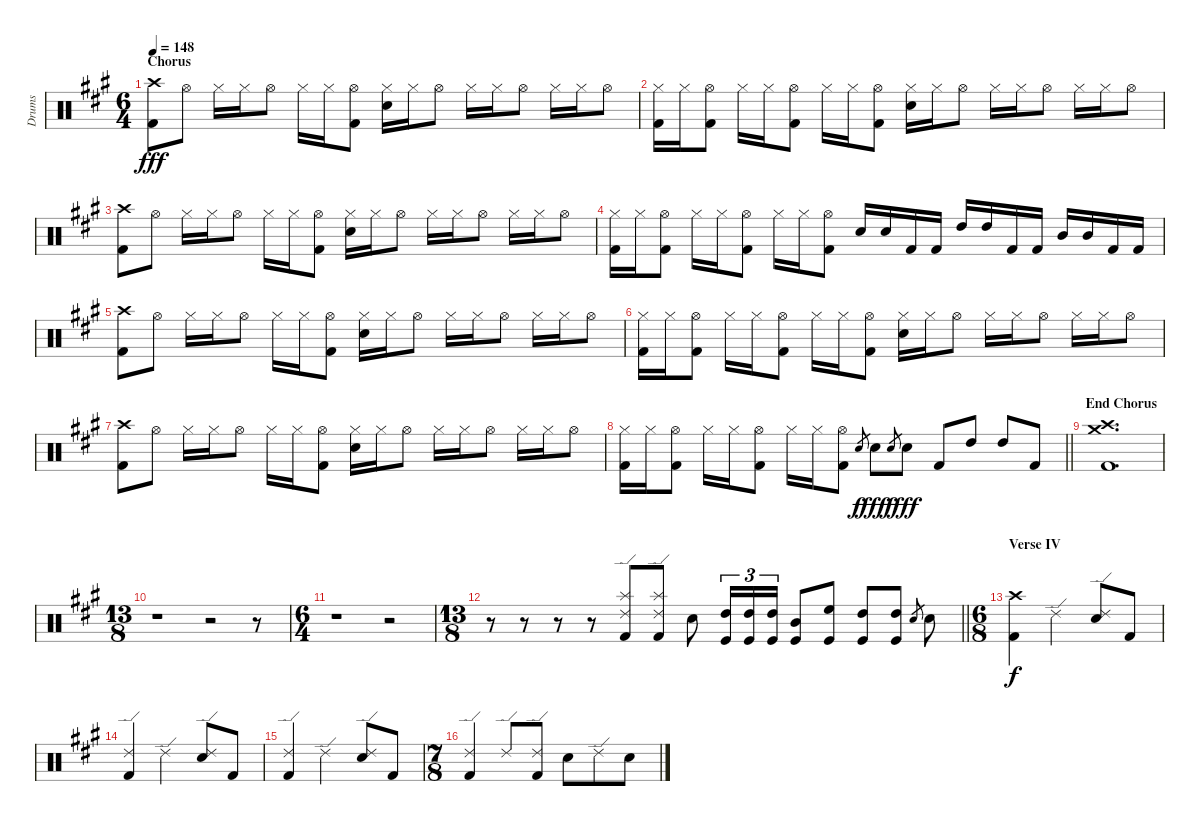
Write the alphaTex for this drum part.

\track ("Drums" "Drums") {instrument percussion}
\staff {score}
\articulation defaults
\ts (6 4)
\section ("" "Chorus")
\tempo 148
\clef neutral
\ks a
("Crash high (hit)" "Kick (hit) 2").8{dy fff} "Hi-Hat (open)".8 "Hi-Hat (closed)".16 "Hi-Hat (closed)".16 "Hi-Hat (open)".8 "Hi-Hat (closed)".16 "Hi-Hat (closed)".16 ("Hi-Hat (open)" "Kick (hit) 2").8 ("Hi-Hat (closed)" "Electric Snare (hit)").16 "Hi-Hat (closed)".16 "Hi-Hat (open)".8 "Hi-Hat (closed)".16 "Hi-Hat (closed)".16 "Hi-Hat (open)".8 "Hi-Hat (closed)".16 "Hi-Hat (closed)".16 "Hi-Hat (open)".8 |
("Hi-Hat (closed)" "Kick (hit) 2").16 "Hi-Hat (closed)".16 ("Hi-Hat (open)" "Kick (hit) 2").8 "Hi-Hat (closed)".16 "Hi-Hat (closed)".16 ("Hi-Hat (open)" "Kick (hit) 2").8 "Hi-Hat (closed)".16 "Hi-Hat (closed)".16 ("Hi-Hat (open)" "Kick (hit) 2").8 ("Hi-Hat (closed)" "Electric Snare (hit)").16 "Hi-Hat (closed)".16 "Hi-Hat (open)".8 "Hi-Hat (closed)".16 "Hi-Hat (closed)".16 "Hi-Hat (open)".8 "Hi-Hat (closed)".16 "Hi-Hat (closed)".16 "Hi-Hat (open)".8 |
("Crash high (hit)" "Kick (hit) 2").8 "Hi-Hat (open)".8 "Hi-Hat (closed)".16 "Hi-Hat (closed)".16 "Hi-Hat (open)".8 "Hi-Hat (closed)".16 "Hi-Hat (closed)".16 ("Hi-Hat (open)" "Kick (hit) 2").8 ("Hi-Hat (closed)" "Electric Snare (hit)").16 "Hi-Hat (closed)".16 "Hi-Hat (open)".8 "Hi-Hat (closed)".16 "Hi-Hat (closed)".16 "Hi-Hat (open)".8 "Hi-Hat (closed)".16 "Hi-Hat (closed)".16 "Hi-Hat (open)".8 |
("Hi-Hat (closed)" "Kick (hit) 2").16 "Hi-Hat (closed)".16 ("Hi-Hat (open)" "Kick (hit) 2").8 "Hi-Hat (closed)".16 "Hi-Hat (closed)".16 ("Hi-Hat (open)" "Kick (hit) 2").8 "Hi-Hat (closed)".16 "Hi-Hat (closed)".16 ("Hi-Hat (open)" "Kick (hit) 2").8 "Electric Snare (hit)".16 "Electric Snare (hit)".16 "Kick (hit) 2".16 "Kick (hit) 2".16 "High Tom (hit)".16 "High Tom (hit)".16 "Kick (hit) 2".16 "Kick (hit) 2".16 "Mid Tom (hit)".16 "Mid Tom (hit)".16 "Kick (hit) 2".16 "Kick (hit) 2".16 |
("Crash high (hit)" "Kick (hit) 2").8 "Hi-Hat (open)".8 "Hi-Hat (closed)".16 "Hi-Hat (closed)".16 "Hi-Hat (open)".8 "Hi-Hat (closed)".16 "Hi-Hat (closed)".16 ("Hi-Hat (open)" "Kick (hit) 2").8 ("Hi-Hat (closed)" "Electric Snare (hit)").16 "Hi-Hat (closed)".16 "Hi-Hat (open)".8 "Hi-Hat (closed)".16 "Hi-Hat (closed)".16 "Hi-Hat (open)".8 "Hi-Hat (closed)".16 "Hi-Hat (closed)".16 "Hi-Hat (open)".8 |
("Hi-Hat (closed)" "Kick (hit) 2").16 "Hi-Hat (closed)".16 ("Hi-Hat (open)" "Kick (hit) 2").8 "Hi-Hat (closed)".16 "Hi-Hat (closed)".16 ("Hi-Hat (open)" "Kick (hit) 2").8 "Hi-Hat (closed)".16 "Hi-Hat (closed)".16 ("Hi-Hat (open)" "Kick (hit) 2").8 ("Hi-Hat (closed)" "Electric Snare (hit)").16 "Hi-Hat (closed)".16 "Hi-Hat (open)".8 "Hi-Hat (closed)".16 "Hi-Hat (closed)".16 "Hi-Hat (open)".8 "Hi-Hat (closed)".16 "Hi-Hat (closed)".16 "Hi-Hat (open)".8 |
("Crash high (hit)" "Kick (hit) 2").8 "Hi-Hat (open)".8 "Hi-Hat (closed)".16 "Hi-Hat (closed)".16 "Hi-Hat (open)".8 "Hi-Hat (closed)".16 "Hi-Hat (closed)".16 ("Hi-Hat (open)" "Kick (hit) 2").8 ("Hi-Hat (closed)" "Electric Snare (hit)").16 "Hi-Hat (closed)".16 "Hi-Hat (open)".8 "Hi-Hat (closed)".16 "Hi-Hat (closed)".16 "Hi-Hat (open)".8 "Hi-Hat (closed)".16 "Hi-Hat (closed)".16 "Hi-Hat (open)".8 |
\barLineRight lightlight
("Hi-Hat (closed)" "Kick (hit) 2").16 "Hi-Hat (closed)".16 ("Hi-Hat (open)" "Kick (hit) 2").8 "Hi-Hat (closed)".16 "Hi-Hat (closed)".16 ("Hi-Hat (open)" "Kick (hit) 2").8 "Hi-Hat (closed)".16 "Hi-Hat (closed)".16 ("Hi-Hat (open)" "Kick (hit) 2").8 "Electric Snare (hit)".8{gr dy f} "Electric Snare (hit)".8{dy fff} "Electric Snare (hit)".8{gr dy f} "Electric Snare (hit)".8{dy fff} "Kick (hit) 2".8 "High Tom (hit)".8 "High Tom (hit)".8 "Kick (hit) 2".8 |
\section ("" "End Chorus")
("Crash high (hit)" "Crash medium (hit)" "Kick (hit) 2").1{d} |
\ts (13 8)
r.1 r.2 r.8 |
\ts (6 4)
r.1 r.2 |
\ts (13 8)
\barLineRight lightlight
r.8 r.8 r.8 r.8 ("Splash (hit)" "Ride (edge) 2" "Kick (hit) 2").8 ("Splash (hit)" "Ride (edge) 2" "Kick (hit) 2").8 "Electric Snare (hit)".8 ("High Tom (hit)" "Kick (hit)").16{tu (3 2)} ("High Tom (hit)" "Kick (hit)").16{tu (3 2)} ("High Tom (hit)" "Kick (hit)").16{tu (3 2)} ("Mid Tom (hit)" "Kick (hit)").8 ("High Floor Tom (hit)" "Kick (hit)").8 ("High Tom (hit)" "Kick (hit)").8 ("High Tom (hit)" "Kick (hit)").8 "Electric Snare (hit)".8{gr} "Electric Snare (hit)".8 |
\ts (6 8)
\section ("" "Verse IV")
("Crash high (hit)" "Kick (hit) 2").4{dy f} "Ride (edge) 2".4 ("Ride (edge) 2" "Electric Snare (hit)").8 "Kick (hit) 2".8 |
("Ride (edge) 2" "Kick (hit) 2").4 "Ride (edge) 2".4 ("Ride (edge) 2" "Electric Snare (hit)").8 "Kick (hit) 2".8 |
("Ride (edge) 2" "Kick (hit) 2").4 "Ride (edge) 2".4 ("Ride (edge) 2" "Electric Snare (hit)").8 "Kick (hit) 2".8 |
\ts (7 8)
("Ride (edge) 2" "Kick (hit) 2").4 "Ride (edge) 2".8 ("Ride (edge) 2" "Kick (hit) 2").8 "Electric Snare (hit)".8 "Ride (edge) 2".8 "Electric Snare (hit)".8
